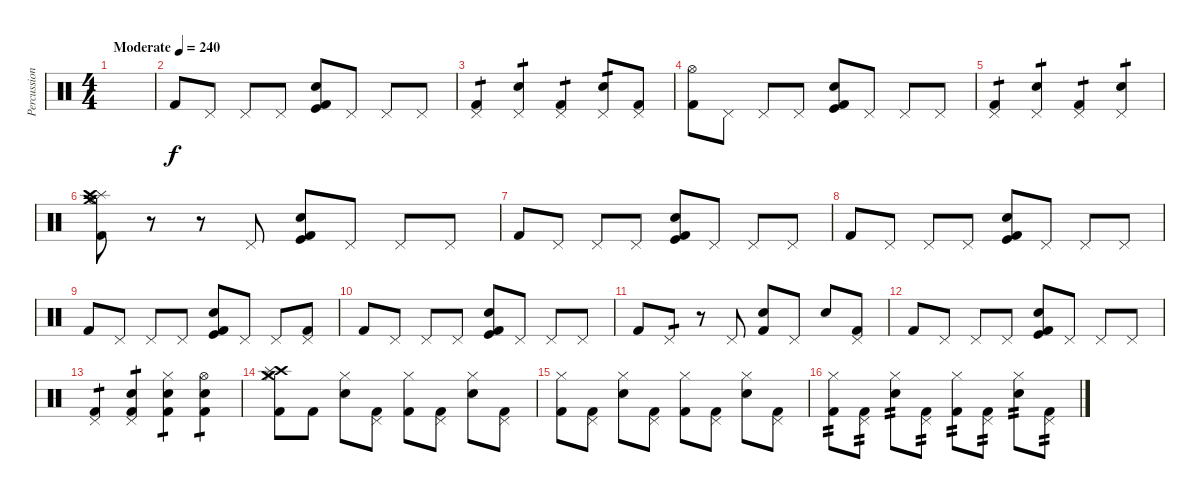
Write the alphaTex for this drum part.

\track ("Percussion" "Percussion") {instrument percussion}
\staff {score}
\articulation defaults
\ts (4 4)
\tempo (240 "Moderate")
\clef neutral
\ks c
|
"Kick (hit) 2".8 "Pedal Hi-Hat (hit)".8 "Pedal Hi-Hat (hit)".8 "Pedal Hi-Hat (hit)".8 ("Kick (hit)" "Snare (hit) 2" "Kick (hit) 2").8 "Pedal Hi-Hat (hit)".8 "Pedal Hi-Hat (hit)".8 "Pedal Hi-Hat (hit)".8 |
("Pedal Hi-Hat (hit)" "Kick (hit) 2").4{tp 1} ("Pedal Hi-Hat (hit)" "Snare (hit) 2").4{tp 1} ("Pedal Hi-Hat (hit)" "Kick (hit) 2").4{tp 1} ("Pedal Hi-Hat (hit)" "Snare (hit) 2").8{tp 1} ("Pedal Hi-Hat (hit)" "Kick (hit) 2").8 |
("Hi-Hat (open)" "Kick (hit) 2").8 "Pedal Hi-Hat (hit)".8 "Pedal Hi-Hat (hit)".8 "Pedal Hi-Hat (hit)".8 ("Kick (hit)" "Snare (hit) 2" "Kick (hit) 2").8 "Pedal Hi-Hat (hit)".8 "Pedal Hi-Hat (hit)".8 "Pedal Hi-Hat (hit)".8 |
("Pedal Hi-Hat (hit)" "Kick (hit) 2").4{tp 1} ("Pedal Hi-Hat (hit)" "Snare (hit) 2").4{tp 1} ("Pedal Hi-Hat (hit)" "Kick (hit) 2").4{tp 1} ("Pedal Hi-Hat (hit)" "Snare (hit) 2").4{tp 1} |
("Crash medium (hit)" "Splash (hit)" "Crash high (hit)" "Hi-Hat (open)" "Kick (hit) 2").8 r.8 r.8 "Pedal Hi-Hat (hit)".8 ("Kick (hit)" "Snare (hit) 2" "Kick (hit) 2").8 "Pedal Hi-Hat (hit)".8 "Pedal Hi-Hat (hit)".8 "Pedal Hi-Hat (hit)".8 |
"Kick (hit) 2".8 "Pedal Hi-Hat (hit)".8 "Pedal Hi-Hat (hit)".8 "Pedal Hi-Hat (hit)".8 ("Kick (hit)" "Snare (hit) 2" "Kick (hit) 2").8 "Pedal Hi-Hat (hit)".8 "Pedal Hi-Hat (hit)".8 "Pedal Hi-Hat (hit)".8 |
"Kick (hit) 2".8 "Pedal Hi-Hat (hit)".8 "Pedal Hi-Hat (hit)".8 "Pedal Hi-Hat (hit)".8 ("Kick (hit)" "Snare (hit) 2" "Kick (hit) 2").8 "Pedal Hi-Hat (hit)".8 "Pedal Hi-Hat (hit)".8 "Pedal Hi-Hat (hit)".8 |
"Kick (hit) 2".8 "Pedal Hi-Hat (hit)".8 "Pedal Hi-Hat (hit)".8 "Pedal Hi-Hat (hit)".8 ("Kick (hit)" "Snare (hit) 2" "Kick (hit) 2").8 "Pedal Hi-Hat (hit)".8 "Pedal Hi-Hat (hit)".8 ("Pedal Hi-Hat (hit)" "Kick (hit) 2").8 |
"Kick (hit) 2".8 "Pedal Hi-Hat (hit)".8 "Pedal Hi-Hat (hit)".8 "Pedal Hi-Hat (hit)".8 ("Kick (hit)" "Snare (hit) 2" "Kick (hit) 2").8 "Pedal Hi-Hat (hit)".8 "Pedal Hi-Hat (hit)".8 "Pedal Hi-Hat (hit)".8 |
"Kick (hit) 2".8 "Pedal Hi-Hat (hit)".8{tp 1} r.8 "Pedal Hi-Hat (hit)".8 ("Snare (hit) 2" "Kick (hit) 2").8 "Pedal Hi-Hat (hit)".8 "Snare (hit) 2".8 ("Pedal Hi-Hat (hit)" "Kick (hit) 2").8 |
"Kick (hit) 2".8 "Pedal Hi-Hat (hit)".8 "Pedal Hi-Hat (hit)".8 "Pedal Hi-Hat (hit)".8 ("Kick (hit)" "Snare (hit) 2" "Kick (hit) 2").8 "Pedal Hi-Hat (hit)".8 "Pedal Hi-Hat (hit)".8 "Pedal Hi-Hat (hit)".8 |
("Pedal Hi-Hat (hit)" "Kick (hit) 2").4{tp 1} ("Pedal Hi-Hat (hit)" "Snare (hit) 2" "Kick (hit) 2").4{tp 1} ("Hi-Hat (closed)" "Snare (hit) 2" "Kick (hit) 2").4{tp 1} ("Hi-Hat (open)" "Snare (hit) 2" "Kick (hit) 2").4{tp 1} |
("Hi-Hat (closed)" "Crash medium (hit)" "Crash high (hit)" "Splash (hit)" "Kick (hit) 2").8 "Kick (hit) 2".8 ("Hi-Hat (closed)" "Snare (hit) 2").8 ("Pedal Hi-Hat (hit)" "Kick (hit) 2").8 ("Hi-Hat (closed)" "Kick (hit) 2").8 ("Pedal Hi-Hat (hit)" "Kick (hit) 2").8 ("Hi-Hat (closed)" "Snare (hit) 2").8 ("Pedal Hi-Hat (hit)" "Kick (hit) 2").8 |
("Hi-Hat (closed)" "Kick (hit) 2").8 ("Pedal Hi-Hat (hit)" "Kick (hit) 2").8 ("Hi-Hat (closed)" "Snare (hit) 2").8 ("Pedal Hi-Hat (hit)" "Kick (hit) 2").8 ("Hi-Hat (closed)" "Kick (hit) 2").8 ("Pedal Hi-Hat (hit)" "Kick (hit) 2").8 ("Hi-Hat (closed)" "Snare (hit) 2").8 ("Pedal Hi-Hat (hit)" "Kick (hit) 2").8 |
("Hi-Hat (closed)" "Kick (hit) 2").8{tp 2} ("Pedal Hi-Hat (hit)" "Kick (hit) 2").8{tp 2} ("Hi-Hat (closed)" "Snare (hit) 2").8{tp 2} ("Pedal Hi-Hat (hit)" "Kick (hit) 2").8{tp 2} ("Hi-Hat (closed)" "Kick (hit) 2").8{tp 2} ("Pedal Hi-Hat (hit)" "Kick (hit) 2").8{tp 2} ("Hi-Hat (closed)" "Snare (hit) 2").8{tp 2} ("Pedal Hi-Hat (hit)" "Kick (hit) 2").8{tp 2}
